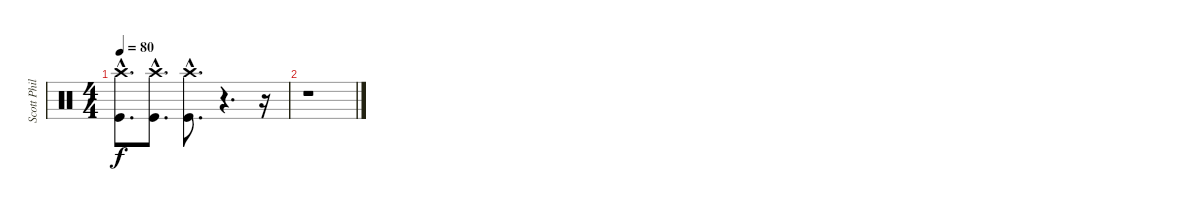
\track ("Scott Phillips" "Scott Phil") {instrument percussion}
\staff {score}
\articulation defaults
\ts (4 4)
\tempo 80
\clef neutral
\ks c
("Crash high (hit)"{hac} "Kick (hit)"{hac}).8{d dy f} ("Crash high (hit)"{hac} "Kick (hit)"{hac}).8{d} ("Crash high (hit)"{hac} "Kick (hit)"{hac}).8{d} r.4{d} r.16 |
r.1
